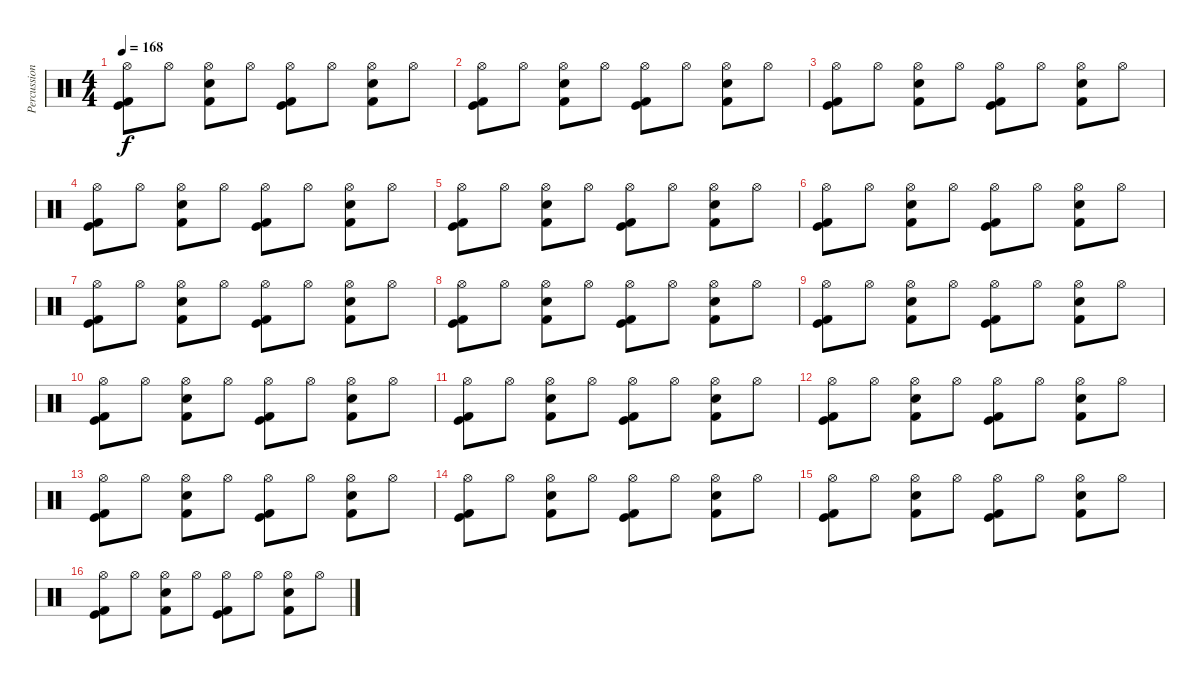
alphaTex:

\track ("Percussion" "Percussion") {instrument percussion}
\staff {score}
\articulation defaults
\ts (4 4)
\tempo 168
\clef neutral
\ks c
("Hi-Hat (open)" "Kick (hit)" "Kick (hit) 2").8{dy f} "Hi-Hat (open)".8 ("Hi-Hat (open)" "Electric Snare (hit)" "Kick (hit) 2").8 "Hi-Hat (open)".8 ("Hi-Hat (open)" "Kick (hit)" "Kick (hit) 2").8 "Hi-Hat (open)".8 ("Hi-Hat (open)" "Electric Snare (hit)" "Kick (hit) 2").8 "Hi-Hat (open)".8 |
("Hi-Hat (open)" "Kick (hit)" "Kick (hit) 2").8 "Hi-Hat (open)".8 ("Hi-Hat (open)" "Electric Snare (hit)" "Kick (hit) 2").8 "Hi-Hat (open)".8 ("Hi-Hat (open)" "Kick (hit)" "Kick (hit) 2").8 "Hi-Hat (open)".8 ("Hi-Hat (open)" "Electric Snare (hit)" "Kick (hit) 2").8 "Hi-Hat (open)".8 |
("Hi-Hat (open)" "Kick (hit)" "Kick (hit) 2").8 "Hi-Hat (open)".8 ("Hi-Hat (open)" "Electric Snare (hit)" "Kick (hit) 2").8 "Hi-Hat (open)".8 ("Hi-Hat (open)" "Kick (hit)" "Kick (hit) 2").8 "Hi-Hat (open)".8 ("Hi-Hat (open)" "Electric Snare (hit)" "Kick (hit) 2").8 "Hi-Hat (open)".8 |
("Hi-Hat (open)" "Kick (hit)" "Kick (hit) 2").8 "Hi-Hat (open)".8 ("Hi-Hat (open)" "Electric Snare (hit)" "Kick (hit) 2").8 "Hi-Hat (open)".8 ("Hi-Hat (open)" "Kick (hit)" "Kick (hit) 2").8 "Hi-Hat (open)".8 ("Hi-Hat (open)" "Electric Snare (hit)" "Kick (hit) 2").8 "Hi-Hat (open)".8 |
("Hi-Hat (open)" "Kick (hit)" "Kick (hit) 2").8 "Hi-Hat (open)".8 ("Hi-Hat (open)" "Electric Snare (hit)" "Kick (hit) 2").8 "Hi-Hat (open)".8 ("Hi-Hat (open)" "Kick (hit)" "Kick (hit) 2").8 "Hi-Hat (open)".8 ("Hi-Hat (open)" "Electric Snare (hit)" "Kick (hit) 2").8 "Hi-Hat (open)".8 |
("Hi-Hat (open)" "Kick (hit)" "Kick (hit) 2").8 "Hi-Hat (open)".8 ("Hi-Hat (open)" "Electric Snare (hit)" "Kick (hit) 2").8 "Hi-Hat (open)".8 ("Hi-Hat (open)" "Kick (hit)" "Kick (hit) 2").8 "Hi-Hat (open)".8 ("Hi-Hat (open)" "Electric Snare (hit)" "Kick (hit) 2").8 "Hi-Hat (open)".8 |
("Hi-Hat (open)" "Kick (hit)" "Kick (hit) 2").8 "Hi-Hat (open)".8 ("Hi-Hat (open)" "Electric Snare (hit)" "Kick (hit) 2").8 "Hi-Hat (open)".8 ("Hi-Hat (open)" "Kick (hit)" "Kick (hit) 2").8 "Hi-Hat (open)".8 ("Hi-Hat (open)" "Electric Snare (hit)" "Kick (hit) 2").8 "Hi-Hat (open)".8 |
("Hi-Hat (open)" "Kick (hit)" "Kick (hit) 2").8 "Hi-Hat (open)".8 ("Hi-Hat (open)" "Electric Snare (hit)" "Kick (hit) 2").8 "Hi-Hat (open)".8 ("Hi-Hat (open)" "Kick (hit)" "Kick (hit) 2").8 "Hi-Hat (open)".8 ("Hi-Hat (open)" "Electric Snare (hit)" "Kick (hit) 2").8 "Hi-Hat (open)".8 |
("Hi-Hat (open)" "Kick (hit)" "Kick (hit) 2").8 "Hi-Hat (open)".8 ("Hi-Hat (open)" "Electric Snare (hit)" "Kick (hit) 2").8 "Hi-Hat (open)".8 ("Hi-Hat (open)" "Kick (hit)" "Kick (hit) 2").8 "Hi-Hat (open)".8 ("Hi-Hat (open)" "Electric Snare (hit)" "Kick (hit) 2").8 "Hi-Hat (open)".8 |
("Hi-Hat (open)" "Kick (hit)" "Kick (hit) 2").8 "Hi-Hat (open)".8 ("Hi-Hat (open)" "Electric Snare (hit)" "Kick (hit) 2").8 "Hi-Hat (open)".8 ("Hi-Hat (open)" "Kick (hit)" "Kick (hit) 2").8 "Hi-Hat (open)".8 ("Hi-Hat (open)" "Electric Snare (hit)" "Kick (hit) 2").8 "Hi-Hat (open)".8 |
("Hi-Hat (open)" "Kick (hit)" "Kick (hit) 2").8 "Hi-Hat (open)".8 ("Hi-Hat (open)" "Electric Snare (hit)" "Kick (hit) 2").8 "Hi-Hat (open)".8 ("Hi-Hat (open)" "Kick (hit)" "Kick (hit) 2").8 "Hi-Hat (open)".8 ("Hi-Hat (open)" "Electric Snare (hit)" "Kick (hit) 2").8 "Hi-Hat (open)".8 |
("Hi-Hat (open)" "Kick (hit)" "Kick (hit) 2").8 "Hi-Hat (open)".8 ("Hi-Hat (open)" "Electric Snare (hit)" "Kick (hit) 2").8 "Hi-Hat (open)".8 ("Hi-Hat (open)" "Kick (hit)" "Kick (hit) 2").8 "Hi-Hat (open)".8 ("Hi-Hat (open)" "Electric Snare (hit)" "Kick (hit) 2").8 "Hi-Hat (open)".8 |
("Hi-Hat (open)" "Kick (hit)" "Kick (hit) 2").8 "Hi-Hat (open)".8 ("Hi-Hat (open)" "Electric Snare (hit)" "Kick (hit) 2").8 "Hi-Hat (open)".8 ("Hi-Hat (open)" "Kick (hit)" "Kick (hit) 2").8 "Hi-Hat (open)".8 ("Hi-Hat (open)" "Electric Snare (hit)" "Kick (hit) 2").8 "Hi-Hat (open)".8 |
("Hi-Hat (open)" "Kick (hit)" "Kick (hit) 2").8 "Hi-Hat (open)".8 ("Hi-Hat (open)" "Electric Snare (hit)" "Kick (hit) 2").8 "Hi-Hat (open)".8 ("Hi-Hat (open)" "Kick (hit)" "Kick (hit) 2").8 "Hi-Hat (open)".8 ("Hi-Hat (open)" "Electric Snare (hit)" "Kick (hit) 2").8 "Hi-Hat (open)".8 |
("Hi-Hat (open)" "Kick (hit)" "Kick (hit) 2").8 "Hi-Hat (open)".8 ("Hi-Hat (open)" "Electric Snare (hit)" "Kick (hit) 2").8 "Hi-Hat (open)".8 ("Hi-Hat (open)" "Kick (hit)" "Kick (hit) 2").8 "Hi-Hat (open)".8 ("Hi-Hat (open)" "Electric Snare (hit)" "Kick (hit) 2").8 "Hi-Hat (open)".8 |
("Hi-Hat (open)" "Kick (hit)" "Kick (hit) 2").8 "Hi-Hat (open)".8 ("Hi-Hat (open)" "Electric Snare (hit)" "Kick (hit) 2").8 "Hi-Hat (open)".8 ("Hi-Hat (open)" "Kick (hit)" "Kick (hit) 2").8 "Hi-Hat (open)".8 ("Hi-Hat (open)" "Electric Snare (hit)" "Kick (hit) 2").8 "Hi-Hat (open)".8
